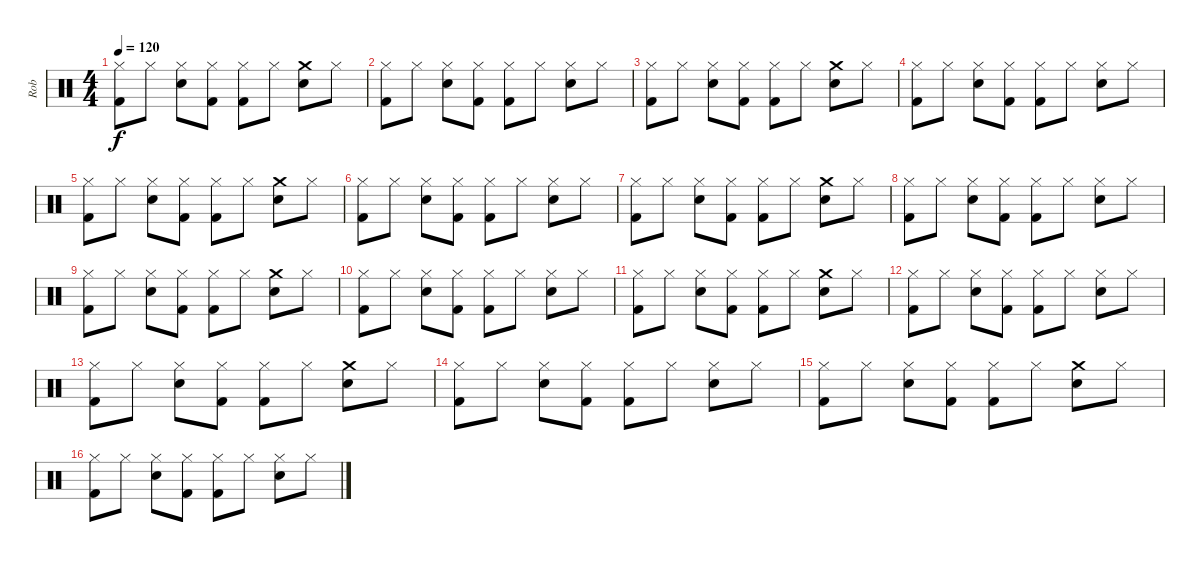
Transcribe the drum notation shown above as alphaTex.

\track ("Rob" "Rob") {instrument percussion}
\staff {score}
\articulation defaults
\ts (4 4)
\tempo 120
\clef neutral
\ks c
("Hi-Hat (closed)" "Kick (hit) 2").8{dy f} "Hi-Hat (closed)".8 ("Hi-Hat (closed)" "Electric Snare (hit)").8 ("Hi-Hat (closed)" "Kick (hit) 2").8 ("Hi-Hat (closed)" "Kick (hit) 2").8 "Hi-Hat (closed)".8 ("Crash medium (hit)" "Electric Snare (hit)").8 "Hi-Hat (closed)".8 |
("Hi-Hat (closed)" "Kick (hit) 2").8 "Hi-Hat (closed)".8 ("Hi-Hat (closed)" "Electric Snare (hit)").8 ("Hi-Hat (closed)" "Kick (hit) 2").8 ("Hi-Hat (closed)" "Kick (hit) 2").8 "Hi-Hat (closed)".8 ("Hi-Hat (closed)" "Electric Snare (hit)").8 "Hi-Hat (closed)".8 |
("Hi-Hat (closed)" "Kick (hit) 2").8 "Hi-Hat (closed)".8 ("Hi-Hat (closed)" "Electric Snare (hit)").8 ("Hi-Hat (closed)" "Kick (hit) 2").8 ("Hi-Hat (closed)" "Kick (hit) 2").8 "Hi-Hat (closed)".8 ("Crash medium (hit)" "Electric Snare (hit)").8 "Hi-Hat (closed)".8 |
("Hi-Hat (closed)" "Kick (hit) 2").8 "Hi-Hat (closed)".8 ("Hi-Hat (closed)" "Electric Snare (hit)").8 ("Hi-Hat (closed)" "Kick (hit) 2").8 ("Hi-Hat (closed)" "Kick (hit) 2").8 "Hi-Hat (closed)".8 ("Hi-Hat (closed)" "Electric Snare (hit)").8 "Hi-Hat (closed)".8 |
("Hi-Hat (closed)" "Kick (hit) 2").8 "Hi-Hat (closed)".8 ("Hi-Hat (closed)" "Electric Snare (hit)").8 ("Hi-Hat (closed)" "Kick (hit) 2").8 ("Hi-Hat (closed)" "Kick (hit) 2").8 "Hi-Hat (closed)".8 ("Crash medium (hit)" "Electric Snare (hit)").8 "Hi-Hat (closed)".8 |
("Hi-Hat (closed)" "Kick (hit) 2").8 "Hi-Hat (closed)".8 ("Hi-Hat (closed)" "Electric Snare (hit)").8 ("Hi-Hat (closed)" "Kick (hit) 2").8 ("Hi-Hat (closed)" "Kick (hit) 2").8 "Hi-Hat (closed)".8 ("Hi-Hat (closed)" "Electric Snare (hit)").8 "Hi-Hat (closed)".8 |
("Hi-Hat (closed)" "Kick (hit) 2").8 "Hi-Hat (closed)".8 ("Hi-Hat (closed)" "Electric Snare (hit)").8 ("Hi-Hat (closed)" "Kick (hit) 2").8 ("Hi-Hat (closed)" "Kick (hit) 2").8 "Hi-Hat (closed)".8 ("Crash medium (hit)" "Electric Snare (hit)").8 "Hi-Hat (closed)".8 |
("Hi-Hat (closed)" "Kick (hit) 2").8 "Hi-Hat (closed)".8 ("Hi-Hat (closed)" "Electric Snare (hit)").8 ("Hi-Hat (closed)" "Kick (hit) 2").8 ("Hi-Hat (closed)" "Kick (hit) 2").8 "Hi-Hat (closed)".8 ("Hi-Hat (closed)" "Electric Snare (hit)").8 "Hi-Hat (closed)".8 |
("Hi-Hat (closed)" "Kick (hit) 2").8 "Hi-Hat (closed)".8 ("Hi-Hat (closed)" "Electric Snare (hit)").8 ("Hi-Hat (closed)" "Kick (hit) 2").8 ("Hi-Hat (closed)" "Kick (hit) 2").8 "Hi-Hat (closed)".8 ("Crash medium (hit)" "Electric Snare (hit)").8 "Hi-Hat (closed)".8 |
("Hi-Hat (closed)" "Kick (hit) 2").8 "Hi-Hat (closed)".8 ("Hi-Hat (closed)" "Electric Snare (hit)").8 ("Hi-Hat (closed)" "Kick (hit) 2").8 ("Hi-Hat (closed)" "Kick (hit) 2").8 "Hi-Hat (closed)".8 ("Hi-Hat (closed)" "Electric Snare (hit)").8 "Hi-Hat (closed)".8 |
("Hi-Hat (closed)" "Kick (hit) 2").8 "Hi-Hat (closed)".8 ("Hi-Hat (closed)" "Electric Snare (hit)").8 ("Hi-Hat (closed)" "Kick (hit) 2").8 ("Hi-Hat (closed)" "Kick (hit) 2").8 "Hi-Hat (closed)".8 ("Crash medium (hit)" "Electric Snare (hit)").8 "Hi-Hat (closed)".8 |
("Hi-Hat (closed)" "Kick (hit) 2").8 "Hi-Hat (closed)".8 ("Hi-Hat (closed)" "Electric Snare (hit)").8 ("Hi-Hat (closed)" "Kick (hit) 2").8 ("Hi-Hat (closed)" "Kick (hit) 2").8 "Hi-Hat (closed)".8 ("Hi-Hat (closed)" "Electric Snare (hit)").8 "Hi-Hat (closed)".8 |
("Hi-Hat (closed)" "Kick (hit) 2").8 "Hi-Hat (closed)".8 ("Hi-Hat (closed)" "Electric Snare (hit)").8 ("Hi-Hat (closed)" "Kick (hit) 2").8 ("Hi-Hat (closed)" "Kick (hit) 2").8 "Hi-Hat (closed)".8 ("Crash medium (hit)" "Electric Snare (hit)").8 "Hi-Hat (closed)".8 |
("Hi-Hat (closed)" "Kick (hit) 2").8 "Hi-Hat (closed)".8 ("Hi-Hat (closed)" "Electric Snare (hit)").8 ("Hi-Hat (closed)" "Kick (hit) 2").8 ("Hi-Hat (closed)" "Kick (hit) 2").8 "Hi-Hat (closed)".8 ("Hi-Hat (closed)" "Electric Snare (hit)").8 "Hi-Hat (closed)".8 |
("Hi-Hat (closed)" "Kick (hit) 2").8 "Hi-Hat (closed)".8 ("Hi-Hat (closed)" "Electric Snare (hit)").8 ("Hi-Hat (closed)" "Kick (hit) 2").8 ("Hi-Hat (closed)" "Kick (hit) 2").8 "Hi-Hat (closed)".8 ("Crash medium (hit)" "Electric Snare (hit)").8 "Hi-Hat (closed)".8 |
("Hi-Hat (closed)" "Kick (hit) 2").8 "Hi-Hat (closed)".8 ("Hi-Hat (closed)" "Electric Snare (hit)").8 ("Hi-Hat (closed)" "Kick (hit) 2").8 ("Hi-Hat (closed)" "Kick (hit) 2").8 "Hi-Hat (closed)".8 ("Hi-Hat (closed)" "Electric Snare (hit)").8 "Hi-Hat (closed)".8
